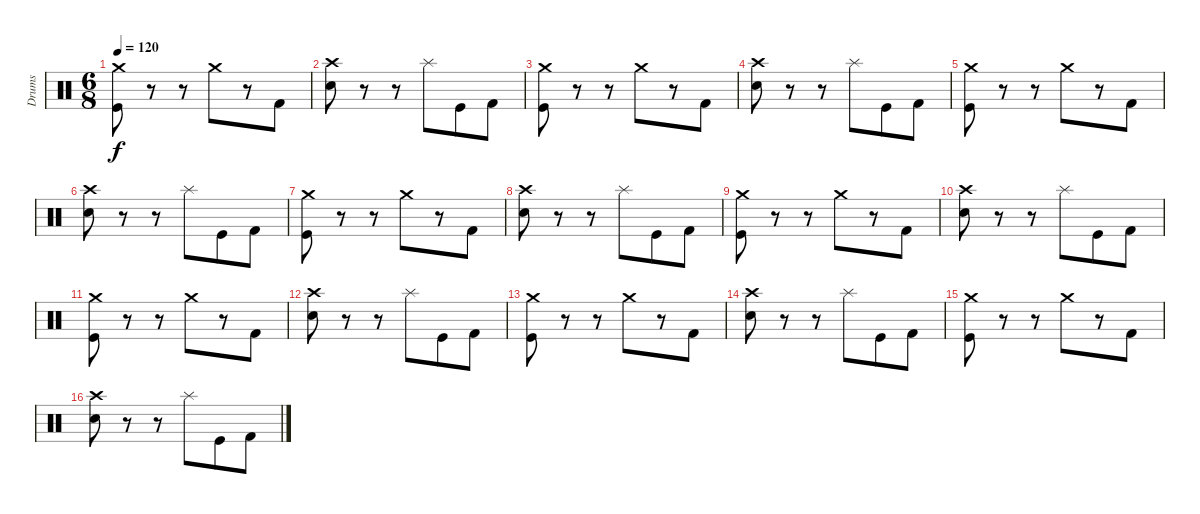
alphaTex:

\track ("Drums" "Drums") {instrument percussion}
\staff {score}
\articulation defaults
\ts (6 8)
\tempo 120
\clef neutral
\ks c
("Crash medium (hit)" "Kick (hit)").8{dy f} r.8 r.8 "Crash medium (hit)".8 r.8 "Kick (hit) 2".8 |
("Crash high (hit)" "Electric Snare (hit)").8 r.8 r.8 "Splash (hit)".8 "Kick (hit)".8 "Kick (hit) 2".8 |
("Crash medium (hit)" "Kick (hit)").8 r.8 r.8 "Crash medium (hit)".8 r.8 "Kick (hit) 2".8 |
("Crash high (hit)" "Electric Snare (hit)").8 r.8 r.8 "Splash (hit)".8 "Kick (hit)".8 "Kick (hit) 2".8 |
("Crash medium (hit)" "Kick (hit)").8 r.8 r.8 "Crash medium (hit)".8 r.8 "Kick (hit) 2".8 |
("Crash high (hit)" "Electric Snare (hit)").8 r.8 r.8 "Splash (hit)".8 "Kick (hit)".8 "Kick (hit) 2".8 |
("Crash medium (hit)" "Kick (hit)").8 r.8 r.8 "Crash medium (hit)".8 r.8 "Kick (hit) 2".8 |
("Crash high (hit)" "Electric Snare (hit)").8 r.8 r.8 "Splash (hit)".8 "Kick (hit)".8 "Kick (hit) 2".8 |
("Crash medium (hit)" "Kick (hit)").8 r.8 r.8 "Crash medium (hit)".8 r.8 "Kick (hit) 2".8 |
("Crash high (hit)" "Electric Snare (hit)").8 r.8 r.8 "Splash (hit)".8 "Kick (hit)".8 "Kick (hit) 2".8 |
("Crash medium (hit)" "Kick (hit)").8 r.8 r.8 "Crash medium (hit)".8 r.8 "Kick (hit) 2".8 |
("Crash high (hit)" "Electric Snare (hit)").8 r.8 r.8 "Splash (hit)".8 "Kick (hit)".8 "Kick (hit) 2".8 |
("Crash medium (hit)" "Kick (hit)").8 r.8 r.8 "Crash medium (hit)".8 r.8 "Kick (hit) 2".8 |
("Crash high (hit)" "Electric Snare (hit)").8 r.8 r.8 "Splash (hit)".8 "Kick (hit)".8 "Kick (hit) 2".8 |
("Crash medium (hit)" "Kick (hit)").8 r.8 r.8 "Crash medium (hit)".8 r.8 "Kick (hit) 2".8 |
("Crash high (hit)" "Electric Snare (hit)").8 r.8 r.8 "Splash (hit)".8 "Kick (hit)".8 "Kick (hit) 2".8
